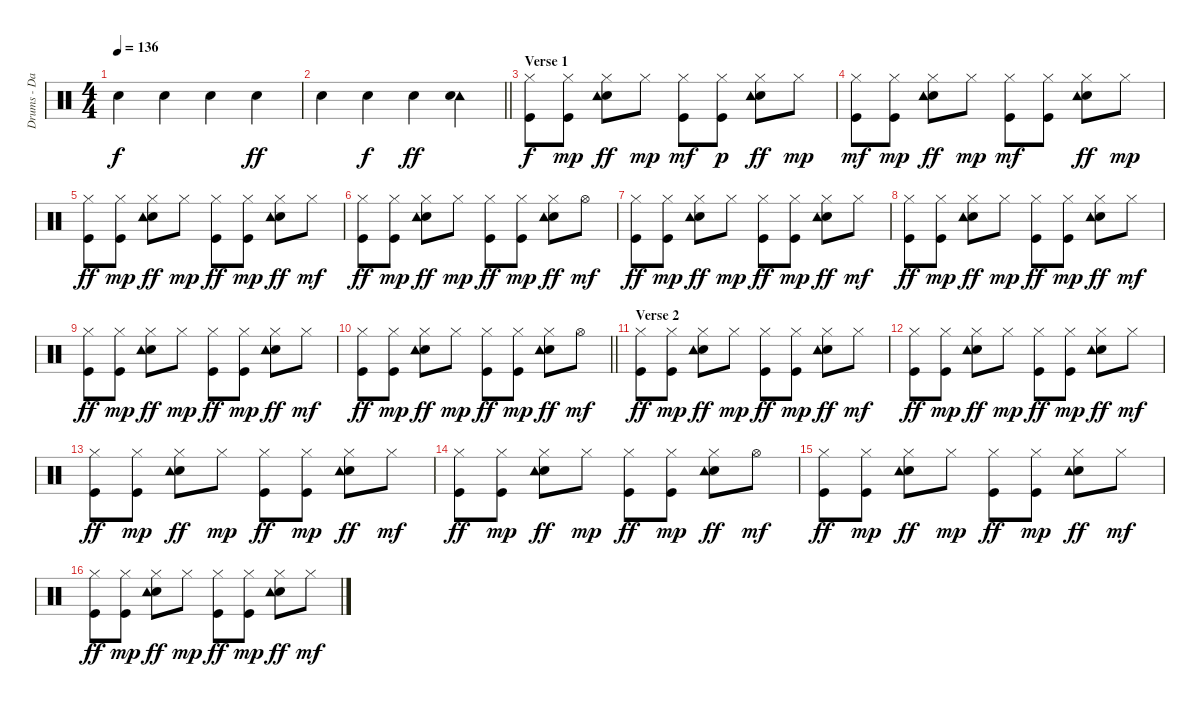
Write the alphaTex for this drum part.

\track ("Drums - Danny Smythe" "Drums - Da") {instrument percussion}
\staff {score}
\articulation defaults
\ts (4 4)
\tempo 136
\clef neutral
\ks c "Electric Snare (hit)".4{dy f} "Electric Snare (hit)".4 "Electric Snare (hit)".4 "Electric Snare (hit)".4{dy ff}
|
\barLineRight lightlight "Electric Snare (hit)".4 "Electric Snare (hit)".4{dy f} "Electric Snare (hit)".4{dy ff}
("Tambourine (hit)" "Electric Snare (hit)").4 |
\section ("" "Verse 1")
("Hi-Hat (closed)" "Kick (hit)").8{dy f} ("Kick (hit)" "Hi-Hat (closed)").8{dy mp} ("Hi-Hat (closed)" "Electric Snare (hit)" "Tambourine (hit)").8{dy ff} "Hi-Hat (closed)".8{dy mp} ("Hi-Hat (closed)" "Kick (hit)").8{dy mf} ("Kick (hit)" "Hi-Hat (closed)").8{dy p} ("Electric Snare (hit)" "Hi-Hat (closed)" "Tambourine (hit)").8{dy ff} "Hi-Hat (closed)".8{dy mp} |
("Hi-Hat (closed)" "Kick (hit)").8{dy mf} ("Kick (hit)" "Hi-Hat (closed)").8{dy mp} ("Electric Snare (hit)" "Hi-Hat (closed)" "Tambourine (hit)").8{dy ff} "Hi-Hat (closed)".8{dy mp} ("Kick (hit)" "Hi-Hat (closed)").8{dy mf} ("Kick (hit)" "Hi-Hat (closed)").8 ("Hi-Hat (closed)" "Electric Snare (hit)" "Tambourine (hit)").8{dy ff} "Hi-Hat (closed)".8{dy mp} |
("Hi-Hat (closed)" "Kick (hit)").8{dy ff} ("Hi-Hat (closed)" "Kick (hit)").8{dy mp} ("Electric Snare (hit)" "Hi-Hat (closed)" "Tambourine (hit)").8{dy ff} "Hi-Hat (closed)".8{dy mp} ("Hi-Hat (closed)" "Kick (hit)").8{dy ff} ("Hi-Hat (closed)" "Kick (hit)").8{dy mp} ("Hi-Hat (closed)" "Electric Snare (hit)" "Tambourine (hit)").8{dy ff} "Hi-Hat (closed)".8{dy mf} |
("Hi-Hat (closed)" "Kick (hit)").8{dy ff} ("Hi-Hat (closed)" "Kick (hit)").8{dy mp} ("Electric Snare (hit)" "Hi-Hat (closed)" "Tambourine (hit)").8{dy ff} "Hi-Hat (closed)".8{dy mp} ("Hi-Hat (closed)" "Kick (hit)").8{dy ff} ("Hi-Hat (closed)" "Kick (hit)").8{dy mp} ("Hi-Hat (closed)" "Electric Snare (hit)" "Tambourine (hit)").8{dy ff} "Hi-Hat (open)".8{dy mf} |
("Hi-Hat (closed)" "Kick (hit)").8{dy ff} ("Hi-Hat (closed)" "Kick (hit)").8{dy mp} ("Electric Snare (hit)" "Hi-Hat (closed)" "Tambourine (hit)").8{dy ff} "Hi-Hat (closed)".8{dy mp} ("Hi-Hat (closed)" "Kick (hit)").8{dy ff} ("Hi-Hat (closed)" "Kick (hit)").8{dy mp} ("Hi-Hat (closed)" "Electric Snare (hit)" "Tambourine (hit)").8{dy ff} "Hi-Hat (closed)".8{dy mf} |
("Hi-Hat (closed)" "Kick (hit)").8{dy ff} ("Hi-Hat (closed)" "Kick (hit)").8{dy mp} ("Electric Snare (hit)" "Hi-Hat (closed)" "Tambourine (hit)").8{dy ff} "Hi-Hat (closed)".8{dy mp} ("Hi-Hat (closed)" "Kick (hit)").8{dy ff} ("Hi-Hat (closed)" "Kick (hit)").8{dy mp} ("Hi-Hat (closed)" "Electric Snare (hit)" "Tambourine (hit)").8{dy ff} "Hi-Hat (closed)".8{dy mf} |
("Hi-Hat (closed)" "Kick (hit)").8{dy ff} ("Hi-Hat (closed)" "Kick (hit)").8{dy mp} ("Electric Snare (hit)" "Hi-Hat (closed)" "Tambourine (hit)").8{dy ff} "Hi-Hat (closed)".8{dy mp} ("Hi-Hat (closed)" "Kick (hit)").8{dy ff} ("Hi-Hat (closed)" "Kick (hit)").8{dy mp} ("Hi-Hat (closed)" "Electric Snare (hit)" "Tambourine (hit)").8{dy ff} "Hi-Hat (closed)".8{dy mf} |
\barLineRight lightlight
("Hi-Hat (closed)" "Kick (hit)").8{dy ff} ("Hi-Hat (closed)" "Kick (hit)").8{dy mp} ("Electric Snare (hit)" "Hi-Hat (closed)" "Tambourine (hit)").8{dy ff} "Hi-Hat (closed)".8{dy mp} ("Hi-Hat (closed)" "Kick (hit)").8{dy ff} ("Hi-Hat (closed)" "Kick (hit)").8{dy mp} ("Hi-Hat (closed)" "Electric Snare (hit)" "Tambourine (hit)").8{dy ff} "Hi-Hat (open)".8{dy mf} |
\section ("" "Verse 2")
("Hi-Hat (closed)" "Kick (hit)").8{dy ff} ("Hi-Hat (closed)" "Kick (hit)").8{dy mp} ("Electric Snare (hit)" "Hi-Hat (closed)" "Tambourine (hit)").8{dy ff} "Hi-Hat (closed)".8{dy mp} ("Hi-Hat (closed)" "Kick (hit)").8{dy ff} ("Hi-Hat (closed)" "Kick (hit)").8{dy mp} ("Hi-Hat (closed)" "Electric Snare (hit)" "Tambourine (hit)").8{dy ff} "Hi-Hat (closed)".8{dy mf} |
("Hi-Hat (closed)" "Kick (hit)").8{dy ff} ("Hi-Hat (closed)" "Kick (hit)").8{dy mp} ("Electric Snare (hit)" "Hi-Hat (closed)" "Tambourine (hit)").8{dy ff} "Hi-Hat (closed)".8{dy mp} ("Hi-Hat (closed)" "Kick (hit)").8{dy ff} ("Hi-Hat (closed)" "Kick (hit)").8{dy mp} ("Hi-Hat (closed)" "Electric Snare (hit)" "Tambourine (hit)").8{dy ff} "Hi-Hat (closed)".8{dy mf} |
("Hi-Hat (closed)" "Kick (hit)").8{dy ff} ("Hi-Hat (closed)" "Kick (hit)").8{dy mp} ("Electric Snare (hit)" "Hi-Hat (closed)" "Tambourine (hit)").8{dy ff} "Hi-Hat (closed)".8{dy mp} ("Hi-Hat (closed)" "Kick (hit)").8{dy ff} ("Hi-Hat (closed)" "Kick (hit)").8{dy mp} ("Hi-Hat (closed)" "Electric Snare (hit)" "Tambourine (hit)").8{dy ff} "Hi-Hat (closed)".8{dy mf} |
("Hi-Hat (closed)" "Kick (hit)").8{dy ff} ("Hi-Hat (closed)" "Kick (hit)").8{dy mp} ("Electric Snare (hit)" "Hi-Hat (closed)" "Tambourine (hit)").8{dy ff} "Hi-Hat (closed)".8{dy mp} ("Hi-Hat (closed)" "Kick (hit)").8{dy ff} ("Hi-Hat (closed)" "Kick (hit)").8{dy mp} ("Hi-Hat (closed)" "Electric Snare (hit)" "Tambourine (hit)").8{dy ff} "Hi-Hat (open)".8{dy mf} |
("Hi-Hat (closed)" "Kick (hit)").8{dy ff} ("Hi-Hat (closed)" "Kick (hit)").8{dy mp} ("Electric Snare (hit)" "Hi-Hat (closed)" "Tambourine (hit)").8{dy ff} "Hi-Hat (closed)".8{dy mp} ("Hi-Hat (closed)" "Kick (hit)").8{dy ff} ("Hi-Hat (closed)" "Kick (hit)").8{dy mp} ("Hi-Hat (closed)" "Electric Snare (hit)" "Tambourine (hit)").8{dy ff} "Hi-Hat (closed)".8{dy mf} |
("Hi-Hat (closed)" "Kick (hit)").8{dy ff} ("Hi-Hat (closed)" "Kick (hit)").8{dy mp} ("Electric Snare (hit)" "Hi-Hat (closed)" "Tambourine (hit)").8{dy ff} "Hi-Hat (closed)".8{dy mp} ("Hi-Hat (closed)" "Kick (hit)").8{dy ff} ("Hi-Hat (closed)" "Kick (hit)").8{dy mp} ("Hi-Hat (closed)" "Electric Snare (hit)" "Tambourine (hit)").8{dy ff} "Hi-Hat (closed)".8{dy mf}
